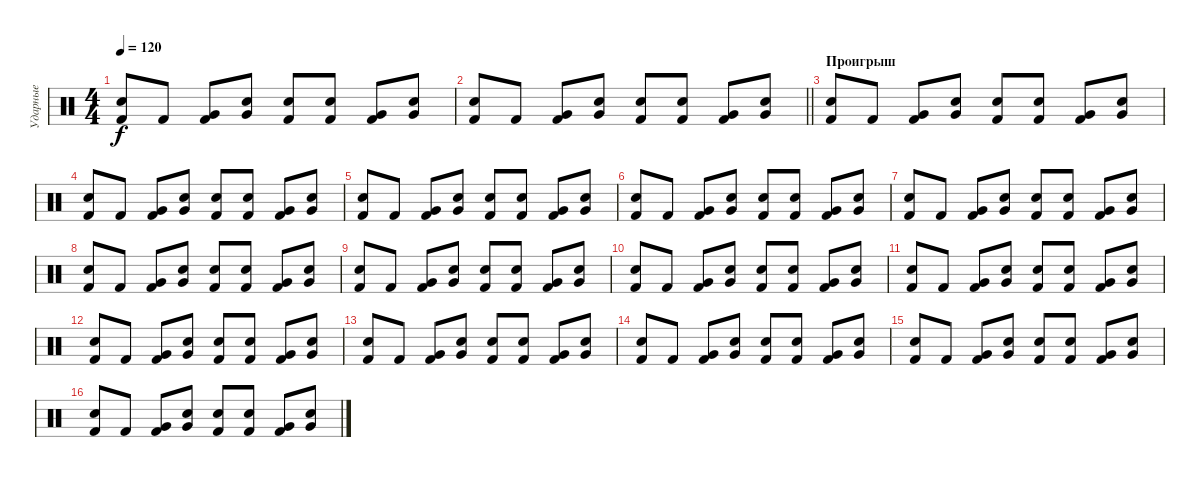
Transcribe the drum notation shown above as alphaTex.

\track ("Ударные" "Ударные") {instrument percussion}
\staff {score}
\articulation defaults
\ts (4 4)
\tempo 120
\clef neutral
\ks c
("Snare (hit) 2" "Kick (hit) 2").8{dy f} "Kick (hit) 2".8 ("Very Low Tom (hit)" "Kick (hit) 2").8 ("Very Low Tom (hit)" "Snare (hit) 2").8 ("Snare (hit) 2" "Kick (hit) 2").8 ("Snare (hit) 2" "Kick (hit) 2").8 ("Very Low Tom (hit)" "Kick (hit) 2").8 ("Very Low Tom (hit)" "Snare (hit) 2").8 |
\barLineRight lightlight
("Snare (hit) 2" "Kick (hit) 2").8 "Kick (hit) 2".8 ("Very Low Tom (hit)" "Kick (hit) 2").8 ("Very Low Tom (hit)" "Snare (hit) 2").8 ("Snare (hit) 2" "Kick (hit) 2").8 ("Snare (hit) 2" "Kick (hit) 2").8 ("Very Low Tom (hit)" "Kick (hit) 2").8 ("Very Low Tom (hit)" "Snare (hit) 2").8 |
\section ("" "Проигрыш")
("Snare (hit) 2" "Kick (hit) 2").8 "Kick (hit) 2".8 ("Very Low Tom (hit)" "Kick (hit) 2").8 ("Very Low Tom (hit)" "Snare (hit) 2").8 ("Snare (hit) 2" "Kick (hit) 2").8 ("Snare (hit) 2" "Kick (hit) 2").8 ("Very Low Tom (hit)" "Kick (hit) 2").8 ("Very Low Tom (hit)" "Snare (hit) 2").8 |
("Snare (hit) 2" "Kick (hit) 2").8 "Kick (hit) 2".8 ("Very Low Tom (hit)" "Kick (hit) 2").8 ("Very Low Tom (hit)" "Snare (hit) 2").8 ("Snare (hit) 2" "Kick (hit) 2").8 ("Snare (hit) 2" "Kick (hit) 2").8 ("Very Low Tom (hit)" "Kick (hit) 2").8 ("Very Low Tom (hit)" "Snare (hit) 2").8 |
("Snare (hit) 2" "Kick (hit) 2").8 "Kick (hit) 2".8 ("Very Low Tom (hit)" "Kick (hit) 2").8 ("Very Low Tom (hit)" "Snare (hit) 2").8 ("Snare (hit) 2" "Kick (hit) 2").8 ("Snare (hit) 2" "Kick (hit) 2").8 ("Very Low Tom (hit)" "Kick (hit) 2").8 ("Very Low Tom (hit)" "Snare (hit) 2").8 |
("Snare (hit) 2" "Kick (hit) 2").8 "Kick (hit) 2".8 ("Very Low Tom (hit)" "Kick (hit) 2").8 ("Very Low Tom (hit)" "Snare (hit) 2").8 ("Snare (hit) 2" "Kick (hit) 2").8 ("Snare (hit) 2" "Kick (hit) 2").8 ("Very Low Tom (hit)" "Kick (hit) 2").8 ("Very Low Tom (hit)" "Snare (hit) 2").8 |
("Snare (hit) 2" "Kick (hit) 2").8 "Kick (hit) 2".8 ("Very Low Tom (hit)" "Kick (hit) 2").8 ("Very Low Tom (hit)" "Snare (hit) 2").8 ("Snare (hit) 2" "Kick (hit) 2").8 ("Snare (hit) 2" "Kick (hit) 2").8 ("Very Low Tom (hit)" "Kick (hit) 2").8 ("Very Low Tom (hit)" "Snare (hit) 2").8 |
("Snare (hit) 2" "Kick (hit) 2").8 "Kick (hit) 2".8 ("Very Low Tom (hit)" "Kick (hit) 2").8 ("Very Low Tom (hit)" "Snare (hit) 2").8 ("Snare (hit) 2" "Kick (hit) 2").8 ("Snare (hit) 2" "Kick (hit) 2").8 ("Very Low Tom (hit)" "Kick (hit) 2").8 ("Very Low Tom (hit)" "Snare (hit) 2").8 |
("Snare (hit) 2" "Kick (hit) 2").8 "Kick (hit) 2".8 ("Very Low Tom (hit)" "Kick (hit) 2").8 ("Very Low Tom (hit)" "Snare (hit) 2").8 ("Snare (hit) 2" "Kick (hit) 2").8 ("Snare (hit) 2" "Kick (hit) 2").8 ("Very Low Tom (hit)" "Kick (hit) 2").8 ("Very Low Tom (hit)" "Snare (hit) 2").8 |
("Snare (hit) 2" "Kick (hit) 2").8 "Kick (hit) 2".8 ("Very Low Tom (hit)" "Kick (hit) 2").8 ("Very Low Tom (hit)" "Snare (hit) 2").8 ("Snare (hit) 2" "Kick (hit) 2").8 ("Snare (hit) 2" "Kick (hit) 2").8 ("Very Low Tom (hit)" "Kick (hit) 2").8 ("Very Low Tom (hit)" "Snare (hit) 2").8 |
("Snare (hit) 2" "Kick (hit) 2").8 "Kick (hit) 2".8 ("Very Low Tom (hit)" "Kick (hit) 2").8 ("Very Low Tom (hit)" "Snare (hit) 2").8 ("Snare (hit) 2" "Kick (hit) 2").8 ("Snare (hit) 2" "Kick (hit) 2").8 ("Very Low Tom (hit)" "Kick (hit) 2").8 ("Very Low Tom (hit)" "Snare (hit) 2").8 |
("Snare (hit) 2" "Kick (hit) 2").8 "Kick (hit) 2".8 ("Very Low Tom (hit)" "Kick (hit) 2").8 ("Very Low Tom (hit)" "Snare (hit) 2").8 ("Snare (hit) 2" "Kick (hit) 2").8 ("Snare (hit) 2" "Kick (hit) 2").8 ("Very Low Tom (hit)" "Kick (hit) 2").8 ("Very Low Tom (hit)" "Snare (hit) 2").8 |
("Snare (hit) 2" "Kick (hit) 2").8 "Kick (hit) 2".8 ("Very Low Tom (hit)" "Kick (hit) 2").8 ("Very Low Tom (hit)" "Snare (hit) 2").8 ("Snare (hit) 2" "Kick (hit) 2").8 ("Snare (hit) 2" "Kick (hit) 2").8 ("Very Low Tom (hit)" "Kick (hit) 2").8 ("Very Low Tom (hit)" "Snare (hit) 2").8 |
("Snare (hit) 2" "Kick (hit) 2").8 "Kick (hit) 2".8 ("Very Low Tom (hit)" "Kick (hit) 2").8 ("Very Low Tom (hit)" "Snare (hit) 2").8 ("Snare (hit) 2" "Kick (hit) 2").8 ("Snare (hit) 2" "Kick (hit) 2").8 ("Very Low Tom (hit)" "Kick (hit) 2").8 ("Very Low Tom (hit)" "Snare (hit) 2").8 |
("Snare (hit) 2" "Kick (hit) 2").8 "Kick (hit) 2".8 ("Very Low Tom (hit)" "Kick (hit) 2").8 ("Very Low Tom (hit)" "Snare (hit) 2").8 ("Snare (hit) 2" "Kick (hit) 2").8 ("Snare (hit) 2" "Kick (hit) 2").8 ("Very Low Tom (hit)" "Kick (hit) 2").8 ("Very Low Tom (hit)" "Snare (hit) 2").8 |
("Snare (hit) 2" "Kick (hit) 2").8 "Kick (hit) 2".8 ("Very Low Tom (hit)" "Kick (hit) 2").8 ("Very Low Tom (hit)" "Snare (hit) 2").8 ("Snare (hit) 2" "Kick (hit) 2").8 ("Snare (hit) 2" "Kick (hit) 2").8 ("Very Low Tom (hit)" "Kick (hit) 2").8 ("Very Low Tom (hit)" "Snare (hit) 2").8
